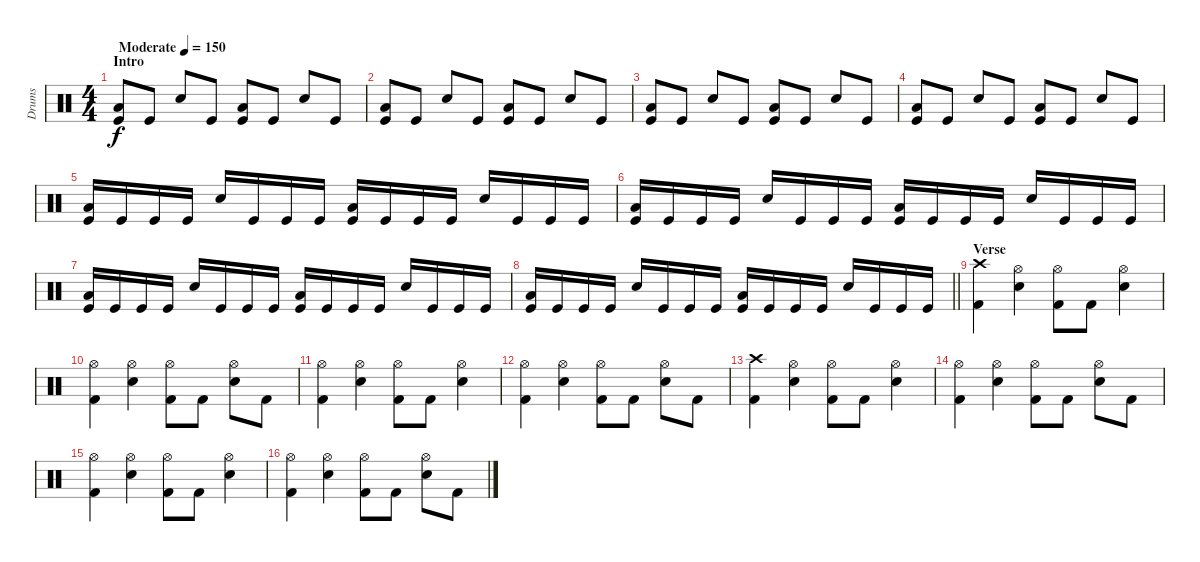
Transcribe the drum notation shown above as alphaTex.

\track ("Drums" "Drums") {instrument percussion}
\staff {score}
\articulation defaults
\ts (4 4)
\section ("" "Intro ")
\tempo (150 "Moderate")
\clef neutral
\ks c
("Low Floor Tom (hit)" "Kick (hit)").8{dy f} "Kick (hit)".8 "Electric Snare (hit)".8 "Kick (hit)".8 ("Low Floor Tom (hit)" "Kick (hit)").8 "Kick (hit)".8 "Electric Snare (hit)".8 "Kick (hit)".8 |
("Low Floor Tom (hit)" "Kick (hit)").8 "Kick (hit)".8 "Electric Snare (hit)".8 "Kick (hit)".8 ("Low Floor Tom (hit)" "Kick (hit)").8 "Kick (hit)".8 "Electric Snare (hit)".8 "Kick (hit)".8 |
("Low Floor Tom (hit)" "Kick (hit)").8 "Kick (hit)".8 "Electric Snare (hit)".8 "Kick (hit)".8 ("Low Floor Tom (hit)" "Kick (hit)").8 "Kick (hit)".8 "Electric Snare (hit)".8 "Kick (hit)".8 |
("Low Floor Tom (hit)" "Kick (hit)").8 "Kick (hit)".8 "Electric Snare (hit)".8 "Kick (hit)".8 ("Low Floor Tom (hit)" "Kick (hit)").8 "Kick (hit)".8 "Electric Snare (hit)".8 "Kick (hit)".8 |
("Low Floor Tom (hit)" "Kick (hit)").16 "Kick (hit)".16 "Kick (hit)".16 "Kick (hit)".16 "Electric Snare (hit)".16 "Kick (hit)".16 "Kick (hit)".16 "Kick (hit)".16 ("Low Floor Tom (hit)" "Kick (hit)").16 "Kick (hit)".16 "Kick (hit)".16 "Kick (hit)".16 "Electric Snare (hit)".16 "Kick (hit)".16 "Kick (hit)".16 "Kick (hit)".16 |
("Low Floor Tom (hit)" "Kick (hit)").16 "Kick (hit)".16 "Kick (hit)".16 "Kick (hit)".16 "Electric Snare (hit)".16 "Kick (hit)".16 "Kick (hit)".16 "Kick (hit)".16 ("Low Floor Tom (hit)" "Kick (hit)").16 "Kick (hit)".16 "Kick (hit)".16 "Kick (hit)".16 "Electric Snare (hit)".16 "Kick (hit)".16 "Kick (hit)".16 "Kick (hit)".16 |
("Low Floor Tom (hit)" "Kick (hit)").16 "Kick (hit)".16 "Kick (hit)".16 "Kick (hit)".16 "Electric Snare (hit)".16 "Kick (hit)".16 "Kick (hit)".16 "Kick (hit)".16 ("Low Floor Tom (hit)" "Kick (hit)").16 "Kick (hit)".16 "Kick (hit)".16 "Kick (hit)".16 "Electric Snare (hit)".16 "Kick (hit)".16 "Kick (hit)".16 "Kick (hit)".16 |
\barLineRight lightlight
("Low Floor Tom (hit)" "Kick (hit)").16 "Kick (hit)".16 "Kick (hit)".16 "Kick (hit)".16 "Electric Snare (hit)".16 "Kick (hit)".16 "Kick (hit)".16 "Kick (hit)".16 ("Low Floor Tom (hit)" "Kick (hit)").16 "Kick (hit)".16 "Kick (hit)".16 "Kick (hit)".16 "Electric Snare (hit)".16 "Kick (hit)".16 "Kick (hit)".16 "Kick (hit)".16 |
\section ("" "Verse")
("Crash high (hit)" "Kick (hit) 2").4 ("Hi-Hat (open)" "Electric Snare (hit)").4 ("Hi-Hat (open)" "Kick (hit) 2").8 "Kick (hit) 2".8 ("Hi-Hat (open)" "Electric Snare (hit)").4 |
("Hi-Hat (open)" "Kick (hit) 2").4 ("Hi-Hat (open)" "Electric Snare (hit)").4 ("Hi-Hat (open)" "Kick (hit) 2").8 "Kick (hit) 2".8 ("Hi-Hat (open)" "Electric Snare (hit)").8 "Kick (hit) 2".8 |
("Hi-Hat (open)" "Kick (hit) 2").4 ("Hi-Hat (open)" "Electric Snare (hit)").4 ("Hi-Hat (open)" "Kick (hit) 2").8 "Kick (hit) 2".8 ("Hi-Hat (open)" "Electric Snare (hit)").4 |
("Hi-Hat (open)" "Kick (hit) 2").4 ("Hi-Hat (open)" "Electric Snare (hit)").4 ("Hi-Hat (open)" "Kick (hit) 2").8 "Kick (hit) 2".8 ("Hi-Hat (open)" "Electric Snare (hit)").8 "Kick (hit) 2".8 |
("Crash high (hit)" "Kick (hit) 2").4 ("Hi-Hat (open)" "Electric Snare (hit)").4 ("Hi-Hat (open)" "Kick (hit) 2").8 "Kick (hit) 2".8 ("Hi-Hat (open)" "Electric Snare (hit)").4 |
("Hi-Hat (open)" "Kick (hit) 2").4 ("Hi-Hat (open)" "Electric Snare (hit)").4 ("Hi-Hat (open)" "Kick (hit) 2").8 "Kick (hit) 2".8 ("Hi-Hat (open)" "Electric Snare (hit)").8 "Kick (hit) 2".8 |
("Hi-Hat (open)" "Kick (hit) 2").4 ("Hi-Hat (open)" "Electric Snare (hit)").4 ("Hi-Hat (open)" "Kick (hit) 2").8 "Kick (hit) 2".8 ("Hi-Hat (open)" "Electric Snare (hit)").4 |
("Hi-Hat (open)" "Kick (hit) 2").4 ("Hi-Hat (open)" "Electric Snare (hit)").4 ("Hi-Hat (open)" "Kick (hit) 2").8 "Kick (hit) 2".8 ("Hi-Hat (open)" "Electric Snare (hit)").8 "Kick (hit) 2".8
